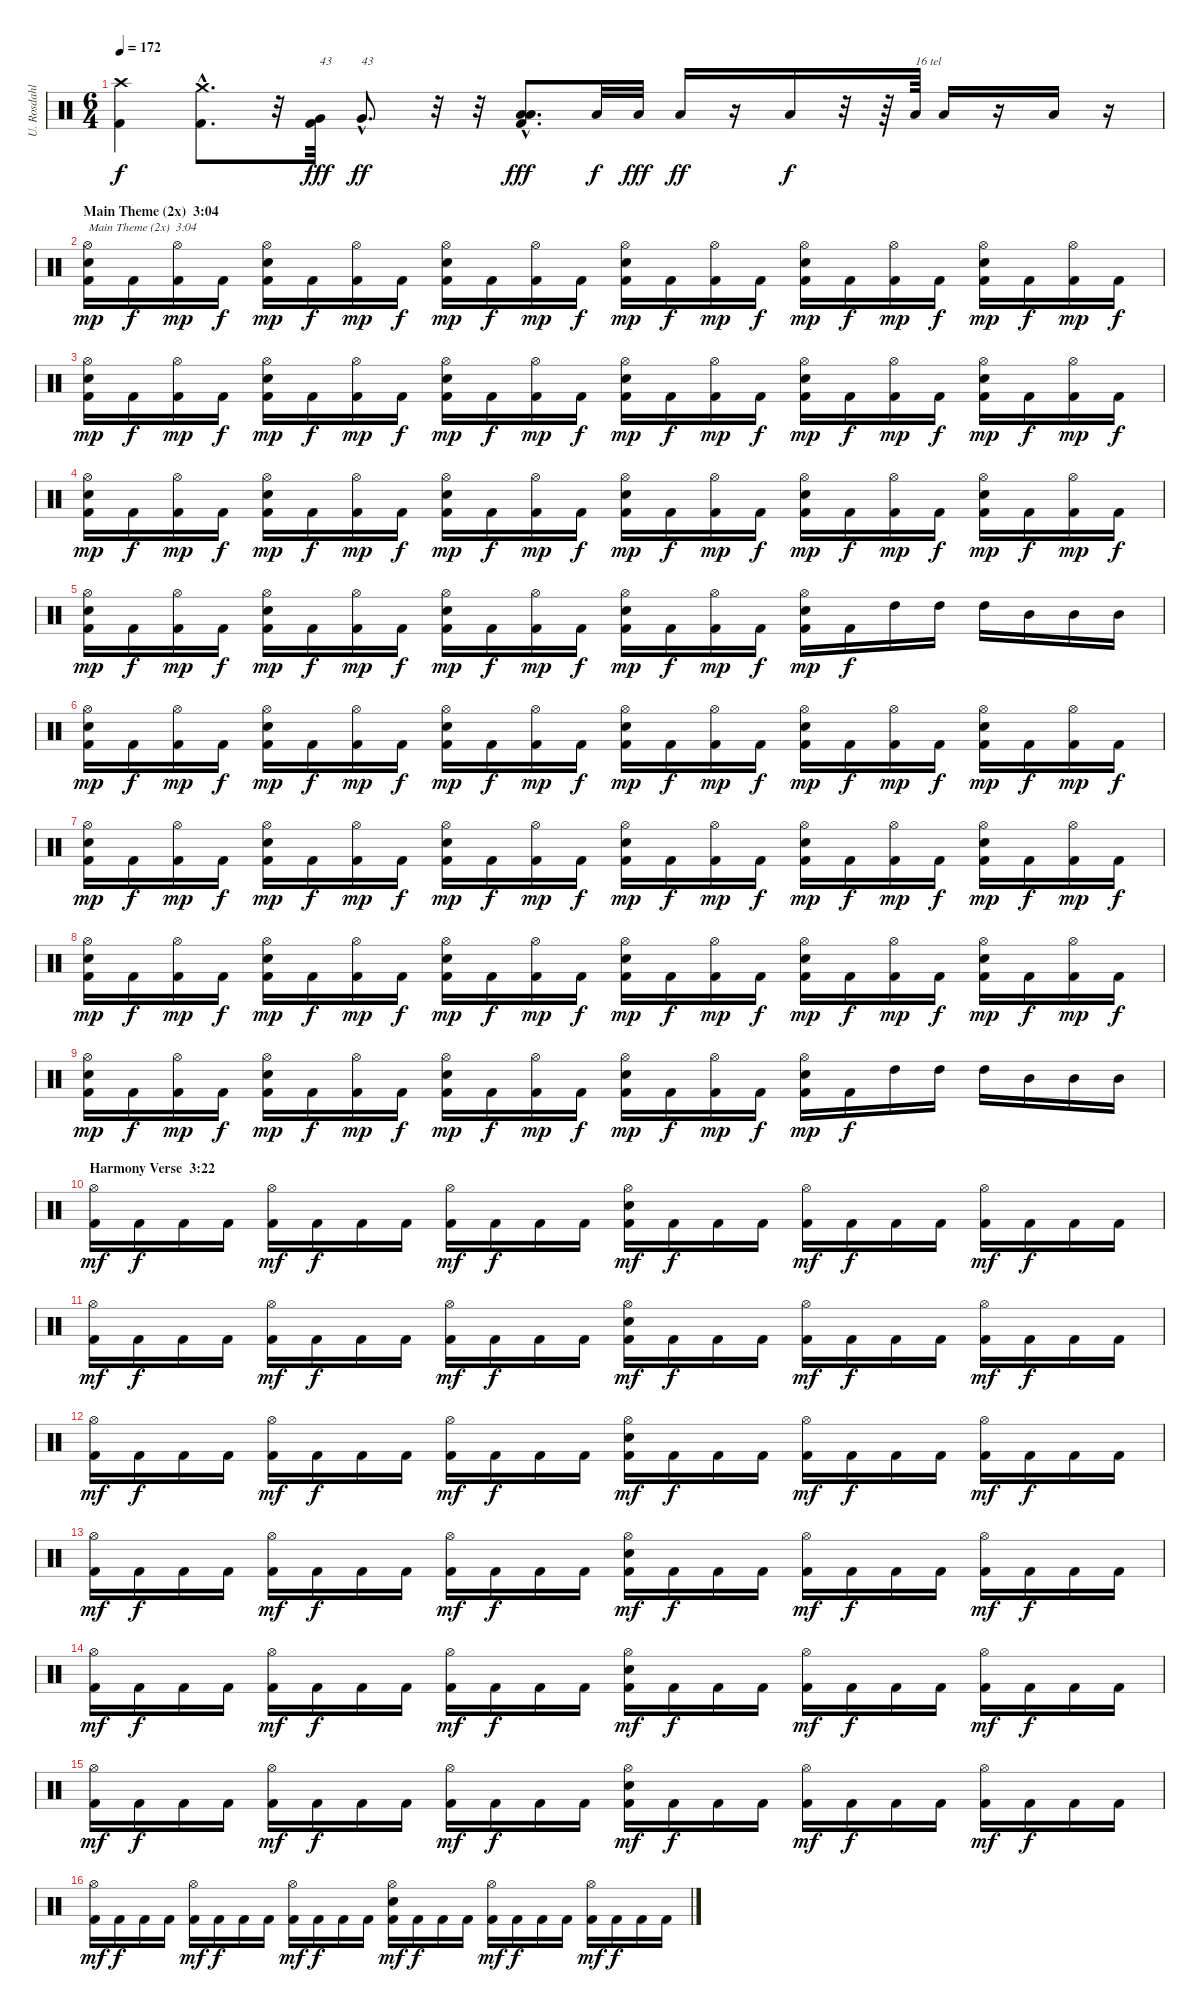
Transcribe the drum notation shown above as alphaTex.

\track ("U. Rosdahl" "U. Rosdahl") {instrument percussion}
\staff {score}
\articulation defaults
\ts (6 4)
\tempo 172
\clef neutral
\ks c
("Kick (hit) 2" "Crash high (hit)").4{dy f} ("Kick (hit) 2"{hac} "Crash medium (hit)"{hac}).8{d} r.32 ("Kick (hit) 2" "Very Low Tom (hit)").32{txt "43" dy fff} "Very Low Tom (hit)"{hac}.8{d txt "43" dy ff} r.32 r.32 ("Kick (hit) 2"{hac} "Low Tom (hit)"{hac} "Low Tom (hit)"{hac}).8{d dy fff} "Low Tom (hit)".32{dy f} "Low Tom (hit)".32{dy fff} "Low Tom (hit)".16{dy ff} r.16 "Low Tom (hit)".16{dy f} r.32 r.64 "Low Tom (hit)".64{txt "16 tel"} "Low Tom (hit)".16 r.16 "Low Tom (hit)".16 r.16 |
\section ("" "Main Theme (2x)  3:04")
("Kick (hit) 2" "Electric Snare (hit)" "Hi-Hat (open)").16{txt "Main Theme (2x)  3:04" dy mp} "Kick (hit) 2".16{dy f} ("Kick (hit) 2" "Hi-Hat (open)").16{dy mp} "Kick (hit) 2".16{dy f} ("Kick (hit) 2" "Electric Snare (hit)" "Hi-Hat (open)").16{dy mp} "Kick (hit) 2".16{dy f} ("Kick (hit) 2" "Hi-Hat (open)").16{dy mp} "Kick (hit) 2".16{dy f} ("Kick (hit) 2" "Electric Snare (hit)" "Hi-Hat (open)").16{dy mp} "Kick (hit) 2".16{dy f} ("Kick (hit) 2" "Hi-Hat (open)").16{dy mp} "Kick (hit) 2".16{dy f} ("Kick (hit) 2" "Electric Snare (hit)" "Hi-Hat (open)").16{dy mp} "Kick (hit) 2".16{dy f} ("Kick (hit) 2" "Hi-Hat (open)").16{dy mp} "Kick (hit) 2".16{dy f} ("Kick (hit) 2" "Electric Snare (hit)" "Hi-Hat (open)").16{dy mp} "Kick (hit) 2".16{dy f} ("Kick (hit) 2" "Hi-Hat (open)").16{dy mp} "Kick (hit) 2".16{dy f} ("Kick (hit) 2" "Electric Snare (hit)" "Hi-Hat (open)").16{dy mp} "Kick (hit) 2".16{dy f} ("Kick (hit) 2" "Hi-Hat (open)").16{dy mp} "Kick (hit) 2".16{dy f} |
("Kick (hit) 2" "Electric Snare (hit)" "Hi-Hat (open)").16{dy mp} "Kick (hit) 2".16{dy f} ("Kick (hit) 2" "Hi-Hat (open)").16{dy mp} "Kick (hit) 2".16{dy f} ("Kick (hit) 2" "Electric Snare (hit)" "Hi-Hat (open)").16{dy mp} "Kick (hit) 2".16{dy f} ("Kick (hit) 2" "Hi-Hat (open)").16{dy mp} "Kick (hit) 2".16{dy f} ("Kick (hit) 2" "Electric Snare (hit)" "Hi-Hat (open)").16{dy mp} "Kick (hit) 2".16{dy f} ("Kick (hit) 2" "Hi-Hat (open)").16{dy mp} "Kick (hit) 2".16{dy f} ("Kick (hit) 2" "Electric Snare (hit)" "Hi-Hat (open)").16{dy mp} "Kick (hit) 2".16{dy f} ("Kick (hit) 2" "Hi-Hat (open)").16{dy mp} "Kick (hit) 2".16{dy f} ("Kick (hit) 2" "Electric Snare (hit)" "Hi-Hat (open)").16{dy mp} "Kick (hit) 2".16{dy f} ("Kick (hit) 2" "Hi-Hat (open)").16{dy mp} "Kick (hit) 2".16{dy f} ("Kick (hit) 2" "Electric Snare (hit)" "Hi-Hat (open)").16{dy mp} "Kick (hit) 2".16{dy f} ("Kick (hit) 2" "Hi-Hat (open)").16{dy mp} "Kick (hit) 2".16{dy f} |
("Kick (hit) 2" "Electric Snare (hit)" "Hi-Hat (open)").16{dy mp} "Kick (hit) 2".16{dy f} ("Kick (hit) 2" "Hi-Hat (open)").16{dy mp} "Kick (hit) 2".16{dy f} ("Kick (hit) 2" "Electric Snare (hit)" "Hi-Hat (open)").16{dy mp} "Kick (hit) 2".16{dy f} ("Kick (hit) 2" "Hi-Hat (open)").16{dy mp} "Kick (hit) 2".16{dy f} ("Kick (hit) 2" "Electric Snare (hit)" "Hi-Hat (open)").16{dy mp} "Kick (hit) 2".16{dy f} ("Kick (hit) 2" "Hi-Hat (open)").16{dy mp} "Kick (hit) 2".16{dy f} ("Kick (hit) 2" "Electric Snare (hit)" "Hi-Hat (open)").16{dy mp} "Kick (hit) 2".16{dy f} ("Kick (hit) 2" "Hi-Hat (open)").16{dy mp} "Kick (hit) 2".16{dy f} ("Kick (hit) 2" "Electric Snare (hit)" "Hi-Hat (open)").16{dy mp} "Kick (hit) 2".16{dy f} ("Kick (hit) 2" "Hi-Hat (open)").16{dy mp} "Kick (hit) 2".16{dy f} ("Kick (hit) 2" "Electric Snare (hit)" "Hi-Hat (open)").16{dy mp} "Kick (hit) 2".16{dy f} ("Kick (hit) 2" "Hi-Hat (open)").16{dy mp} "Kick (hit) 2".16{dy f} |
("Kick (hit) 2" "Electric Snare (hit)" "Hi-Hat (open)").16{dy mp} "Kick (hit) 2".16{dy f} ("Kick (hit) 2" "Hi-Hat (open)").16{dy mp} "Kick (hit) 2".16{dy f} ("Kick (hit) 2" "Electric Snare (hit)" "Hi-Hat (open)").16{dy mp} "Kick (hit) 2".16{dy f} ("Kick (hit) 2" "Hi-Hat (open)").16{dy mp} "Kick (hit) 2".16{dy f} ("Kick (hit) 2" "Electric Snare (hit)" "Hi-Hat (open)").16{dy mp} "Kick (hit) 2".16{dy f} ("Kick (hit) 2" "Hi-Hat (open)").16{dy mp} "Kick (hit) 2".16{dy f} ("Kick (hit) 2" "Electric Snare (hit)" "Hi-Hat (open)").16{dy mp} "Kick (hit) 2".16{dy f} ("Kick (hit) 2" "Hi-Hat (open)").16{dy mp} "Kick (hit) 2".16{dy f} ("Kick (hit) 2" "Electric Snare (hit)" "Hi-Hat (open)").16{dy mp} "Kick (hit) 2".16{dy f} "High Tom (hit)".16 "High Tom (hit)".16 "High Tom (hit)".16 "Mid Tom (hit)".16 "Mid Tom (hit)".16 "Mid Tom (hit)".16 |
("Kick (hit) 2" "Electric Snare (hit)" "Hi-Hat (open)").16{dy mp} "Kick (hit) 2".16{dy f} ("Kick (hit) 2" "Hi-Hat (open)").16{dy mp} "Kick (hit) 2".16{dy f} ("Kick (hit) 2" "Electric Snare (hit)" "Hi-Hat (open)").16{dy mp} "Kick (hit) 2".16{dy f} ("Kick (hit) 2" "Hi-Hat (open)").16{dy mp} "Kick (hit) 2".16{dy f} ("Kick (hit) 2" "Electric Snare (hit)" "Hi-Hat (open)").16{dy mp} "Kick (hit) 2".16{dy f} ("Kick (hit) 2" "Hi-Hat (open)").16{dy mp} "Kick (hit) 2".16{dy f} ("Kick (hit) 2" "Electric Snare (hit)" "Hi-Hat (open)").16{dy mp} "Kick (hit) 2".16{dy f} ("Kick (hit) 2" "Hi-Hat (open)").16{dy mp} "Kick (hit) 2".16{dy f} ("Kick (hit) 2" "Electric Snare (hit)" "Hi-Hat (open)").16{dy mp} "Kick (hit) 2".16{dy f} ("Kick (hit) 2" "Hi-Hat (open)").16{dy mp} "Kick (hit) 2".16{dy f} ("Kick (hit) 2" "Electric Snare (hit)" "Hi-Hat (open)").16{dy mp} "Kick (hit) 2".16{dy f} ("Kick (hit) 2" "Hi-Hat (open)").16{dy mp} "Kick (hit) 2".16{dy f} |
("Kick (hit) 2" "Electric Snare (hit)" "Hi-Hat (open)").16{dy mp} "Kick (hit) 2".16{dy f} ("Kick (hit) 2" "Hi-Hat (open)").16{dy mp} "Kick (hit) 2".16{dy f} ("Kick (hit) 2" "Electric Snare (hit)" "Hi-Hat (open)").16{dy mp} "Kick (hit) 2".16{dy f} ("Kick (hit) 2" "Hi-Hat (open)").16{dy mp} "Kick (hit) 2".16{dy f} ("Kick (hit) 2" "Electric Snare (hit)" "Hi-Hat (open)").16{dy mp} "Kick (hit) 2".16{dy f} ("Kick (hit) 2" "Hi-Hat (open)").16{dy mp} "Kick (hit) 2".16{dy f} ("Kick (hit) 2" "Electric Snare (hit)" "Hi-Hat (open)").16{dy mp} "Kick (hit) 2".16{dy f} ("Kick (hit) 2" "Hi-Hat (open)").16{dy mp} "Kick (hit) 2".16{dy f} ("Kick (hit) 2" "Electric Snare (hit)" "Hi-Hat (open)").16{dy mp} "Kick (hit) 2".16{dy f} ("Kick (hit) 2" "Hi-Hat (open)").16{dy mp} "Kick (hit) 2".16{dy f} ("Kick (hit) 2" "Electric Snare (hit)" "Hi-Hat (open)").16{dy mp} "Kick (hit) 2".16{dy f} ("Kick (hit) 2" "Hi-Hat (open)").16{dy mp} "Kick (hit) 2".16{dy f} |
("Kick (hit) 2" "Electric Snare (hit)" "Hi-Hat (open)").16{dy mp} "Kick (hit) 2".16{dy f} ("Kick (hit) 2" "Hi-Hat (open)").16{dy mp} "Kick (hit) 2".16{dy f} ("Kick (hit) 2" "Electric Snare (hit)" "Hi-Hat (open)").16{dy mp} "Kick (hit) 2".16{dy f} ("Kick (hit) 2" "Hi-Hat (open)").16{dy mp} "Kick (hit) 2".16{dy f} ("Kick (hit) 2" "Electric Snare (hit)" "Hi-Hat (open)").16{dy mp} "Kick (hit) 2".16{dy f} ("Kick (hit) 2" "Hi-Hat (open)").16{dy mp} "Kick (hit) 2".16{dy f} ("Kick (hit) 2" "Electric Snare (hit)" "Hi-Hat (open)").16{dy mp} "Kick (hit) 2".16{dy f} ("Kick (hit) 2" "Hi-Hat (open)").16{dy mp} "Kick (hit) 2".16{dy f} ("Kick (hit) 2" "Electric Snare (hit)" "Hi-Hat (open)").16{dy mp} "Kick (hit) 2".16{dy f} ("Kick (hit) 2" "Hi-Hat (open)").16{dy mp} "Kick (hit) 2".16{dy f} ("Kick (hit) 2" "Electric Snare (hit)" "Hi-Hat (open)").16{dy mp} "Kick (hit) 2".16{dy f} ("Kick (hit) 2" "Hi-Hat (open)").16{dy mp} "Kick (hit) 2".16{dy f} |
("Kick (hit) 2" "Electric Snare (hit)" "Hi-Hat (open)").16{dy mp} "Kick (hit) 2".16{dy f} ("Kick (hit) 2" "Hi-Hat (open)").16{dy mp} "Kick (hit) 2".16{dy f} ("Kick (hit) 2" "Electric Snare (hit)" "Hi-Hat (open)").16{dy mp} "Kick (hit) 2".16{dy f} ("Kick (hit) 2" "Hi-Hat (open)").16{dy mp} "Kick (hit) 2".16{dy f} ("Kick (hit) 2" "Electric Snare (hit)" "Hi-Hat (open)").16{dy mp} "Kick (hit) 2".16{dy f} ("Kick (hit) 2" "Hi-Hat (open)").16{dy mp} "Kick (hit) 2".16{dy f} ("Kick (hit) 2" "Electric Snare (hit)" "Hi-Hat (open)").16{dy mp} "Kick (hit) 2".16{dy f} ("Kick (hit) 2" "Hi-Hat (open)").16{dy mp} "Kick (hit) 2".16{dy f} ("Kick (hit) 2" "Electric Snare (hit)" "Hi-Hat (open)").16{dy mp} "Kick (hit) 2".16{dy f} "High Tom (hit)".16 "High Tom (hit)".16 "High Tom (hit)".16 "Mid Tom (hit)".16 "Mid Tom (hit)".16 "Mid Tom (hit)".16 |
\section ("" "Harmony Verse  3:22")
("Kick (hit) 2" "Hi-Hat (open)").16{dy mf} "Kick (hit) 2".16{dy f} "Kick (hit) 2".16 "Kick (hit) 2".16 ("Kick (hit) 2" "Hi-Hat (open)").16{dy mf} "Kick (hit) 2".16{dy f} "Kick (hit) 2".16 "Kick (hit) 2".16 ("Kick (hit) 2" "Hi-Hat (open)").16{dy mf} "Kick (hit) 2".16{dy f} "Kick (hit) 2".16 "Kick (hit) 2".16 ("Kick (hit) 2" "Electric Snare (hit)" "Hi-Hat (open)").16{dy mf} "Kick (hit) 2".16{dy f} "Kick (hit) 2".16 "Kick (hit) 2".16 ("Kick (hit) 2" "Hi-Hat (open)").16{dy mf} "Kick (hit) 2".16{dy f} "Kick (hit) 2".16 "Kick (hit) 2".16 ("Kick (hit) 2" "Hi-Hat (open)").16{dy mf} "Kick (hit) 2".16{dy f} "Kick (hit) 2".16 "Kick (hit) 2".16 |
("Kick (hit) 2" "Hi-Hat (open)").16{dy mf} "Kick (hit) 2".16{dy f} "Kick (hit) 2".16 "Kick (hit) 2".16 ("Kick (hit) 2" "Hi-Hat (open)").16{dy mf} "Kick (hit) 2".16{dy f} "Kick (hit) 2".16 "Kick (hit) 2".16 ("Kick (hit) 2" "Hi-Hat (open)").16{dy mf} "Kick (hit) 2".16{dy f} "Kick (hit) 2".16 "Kick (hit) 2".16 ("Kick (hit) 2" "Electric Snare (hit)" "Hi-Hat (open)").16{dy mf} "Kick (hit) 2".16{dy f} "Kick (hit) 2".16 "Kick (hit) 2".16 ("Kick (hit) 2" "Hi-Hat (open)").16{dy mf} "Kick (hit) 2".16{dy f} "Kick (hit) 2".16 "Kick (hit) 2".16 ("Kick (hit) 2" "Hi-Hat (open)").16{dy mf} "Kick (hit) 2".16{dy f} "Kick (hit) 2".16 "Kick (hit) 2".16 |
("Kick (hit) 2" "Hi-Hat (open)").16{dy mf} "Kick (hit) 2".16{dy f} "Kick (hit) 2".16 "Kick (hit) 2".16 ("Kick (hit) 2" "Hi-Hat (open)").16{dy mf} "Kick (hit) 2".16{dy f} "Kick (hit) 2".16 "Kick (hit) 2".16 ("Kick (hit) 2" "Hi-Hat (open)").16{dy mf} "Kick (hit) 2".16{dy f} "Kick (hit) 2".16 "Kick (hit) 2".16 ("Kick (hit) 2" "Electric Snare (hit)" "Hi-Hat (open)").16{dy mf} "Kick (hit) 2".16{dy f} "Kick (hit) 2".16 "Kick (hit) 2".16 ("Kick (hit) 2" "Hi-Hat (open)").16{dy mf} "Kick (hit) 2".16{dy f} "Kick (hit) 2".16 "Kick (hit) 2".16 ("Kick (hit) 2" "Hi-Hat (open)").16{dy mf} "Kick (hit) 2".16{dy f} "Kick (hit) 2".16 "Kick (hit) 2".16 |
("Kick (hit) 2" "Hi-Hat (open)").16{dy mf} "Kick (hit) 2".16{dy f} "Kick (hit) 2".16 "Kick (hit) 2".16 ("Kick (hit) 2" "Hi-Hat (open)").16{dy mf} "Kick (hit) 2".16{dy f} "Kick (hit) 2".16 "Kick (hit) 2".16 ("Kick (hit) 2" "Hi-Hat (open)").16{dy mf} "Kick (hit) 2".16{dy f} "Kick (hit) 2".16 "Kick (hit) 2".16 ("Kick (hit) 2" "Electric Snare (hit)" "Hi-Hat (open)").16{dy mf} "Kick (hit) 2".16{dy f} "Kick (hit) 2".16 "Kick (hit) 2".16 ("Kick (hit) 2" "Hi-Hat (open)").16{dy mf} "Kick (hit) 2".16{dy f} "Kick (hit) 2".16 "Kick (hit) 2".16 ("Kick (hit) 2" "Hi-Hat (open)").16{dy mf} "Kick (hit) 2".16{dy f} "Kick (hit) 2".16 "Kick (hit) 2".16 |
("Kick (hit) 2" "Hi-Hat (open)").16{dy mf} "Kick (hit) 2".16{dy f} "Kick (hit) 2".16 "Kick (hit) 2".16 ("Kick (hit) 2" "Hi-Hat (open)").16{dy mf} "Kick (hit) 2".16{dy f} "Kick (hit) 2".16 "Kick (hit) 2".16 ("Kick (hit) 2" "Hi-Hat (open)").16{dy mf} "Kick (hit) 2".16{dy f} "Kick (hit) 2".16 "Kick (hit) 2".16 ("Kick (hit) 2" "Electric Snare (hit)" "Hi-Hat (open)").16{dy mf} "Kick (hit) 2".16{dy f} "Kick (hit) 2".16 "Kick (hit) 2".16 ("Kick (hit) 2" "Hi-Hat (open)").16{dy mf} "Kick (hit) 2".16{dy f} "Kick (hit) 2".16 "Kick (hit) 2".16 ("Kick (hit) 2" "Hi-Hat (open)").16{dy mf} "Kick (hit) 2".16{dy f} "Kick (hit) 2".16 "Kick (hit) 2".16 |
("Kick (hit) 2" "Hi-Hat (open)").16{dy mf} "Kick (hit) 2".16{dy f} "Kick (hit) 2".16 "Kick (hit) 2".16 ("Kick (hit) 2" "Hi-Hat (open)").16{dy mf} "Kick (hit) 2".16{dy f} "Kick (hit) 2".16 "Kick (hit) 2".16 ("Kick (hit) 2" "Hi-Hat (open)").16{dy mf} "Kick (hit) 2".16{dy f} "Kick (hit) 2".16 "Kick (hit) 2".16 ("Kick (hit) 2" "Electric Snare (hit)" "Hi-Hat (open)").16{dy mf} "Kick (hit) 2".16{dy f} "Kick (hit) 2".16 "Kick (hit) 2".16 ("Kick (hit) 2" "Hi-Hat (open)").16{dy mf} "Kick (hit) 2".16{dy f} "Kick (hit) 2".16 "Kick (hit) 2".16 ("Kick (hit) 2" "Hi-Hat (open)").16{dy mf} "Kick (hit) 2".16{dy f} "Kick (hit) 2".16 "Kick (hit) 2".16 |
("Kick (hit) 2" "Hi-Hat (open)").16{dy mf} "Kick (hit) 2".16{dy f} "Kick (hit) 2".16 "Kick (hit) 2".16 ("Kick (hit) 2" "Hi-Hat (open)").16{dy mf} "Kick (hit) 2".16{dy f} "Kick (hit) 2".16 "Kick (hit) 2".16 ("Kick (hit) 2" "Hi-Hat (open)").16{dy mf} "Kick (hit) 2".16{dy f} "Kick (hit) 2".16 "Kick (hit) 2".16 ("Kick (hit) 2" "Electric Snare (hit)" "Hi-Hat (open)").16{dy mf} "Kick (hit) 2".16{dy f} "Kick (hit) 2".16 "Kick (hit) 2".16 ("Kick (hit) 2" "Hi-Hat (open)").16{dy mf} "Kick (hit) 2".16{dy f} "Kick (hit) 2".16 "Kick (hit) 2".16 ("Kick (hit) 2" "Hi-Hat (open)").16{dy mf} "Kick (hit) 2".16{dy f} "Kick (hit) 2".16 "Kick (hit) 2".16
